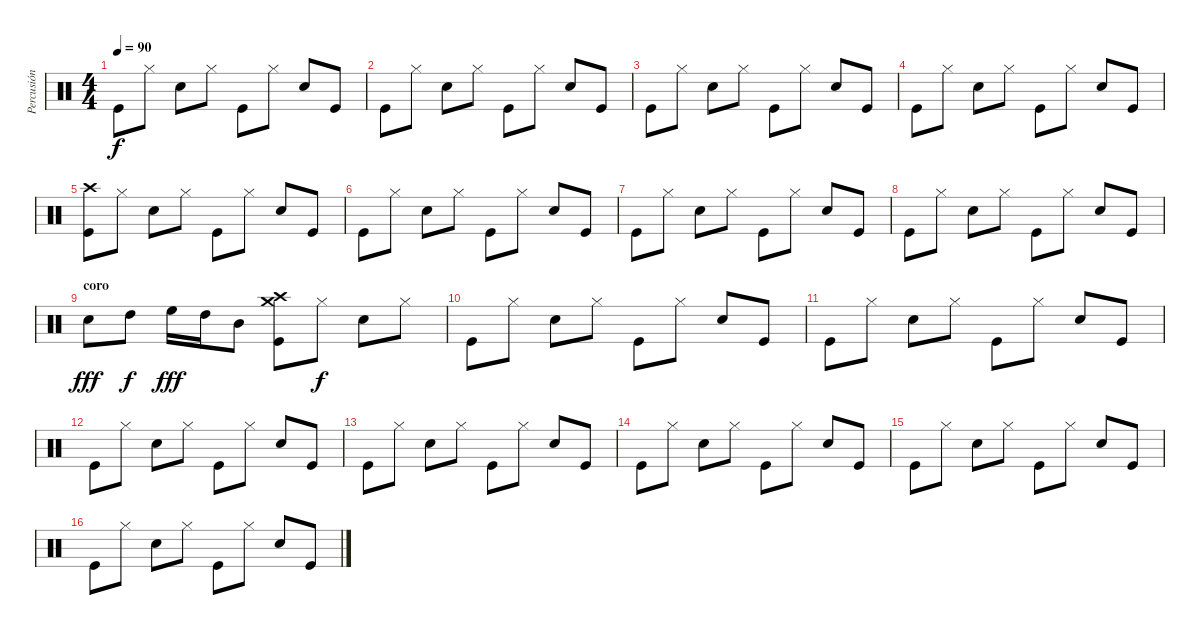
\track ("Percusión" "Percusión") {instrument percussion}
\staff {score}
\articulation defaults
\ts (4 4)
\tempo 90
\clef neutral
\ks c "Kick (hit)".8{dy f} "Hi-Hat (closed)".8 "Snare (hit) 2".8 "Hi-Hat (closed)".8 "Kick (hit)".8 "Hi-Hat (closed)".8 "Snare (hit) 2".8 "Kick (hit)".8
|
"Kick (hit)".8 "Hi-Hat (closed)".8 "Snare (hit) 2".8 "Hi-Hat (closed)".8 "Kick (hit)".8 "Hi-Hat (closed)".8 "Snare (hit) 2".8 "Kick (hit)".8 |
"Kick (hit)".8 "Hi-Hat (closed)".8 "Snare (hit) 2".8 "Hi-Hat (closed)".8 "Kick (hit)".8 "Hi-Hat (closed)".8 "Snare (hit) 2".8 "Kick (hit)".8 |
"Kick (hit)".8 "Hi-Hat (closed)".8 "Snare (hit) 2".8 "Hi-Hat (closed)".8 "Kick (hit)".8 "Hi-Hat (closed)".8 "Snare (hit) 2".8 "Kick (hit)".8 |
("Crash high (hit)" "Kick (hit)").8 "Hi-Hat (closed)".8 "Snare (hit) 2".8 "Hi-Hat (closed)".8 "Kick (hit)".8 "Hi-Hat (closed)".8 "Snare (hit) 2".8 "Kick (hit)".8 |
"Kick (hit)".8 "Hi-Hat (closed)".8 "Snare (hit) 2".8 "Hi-Hat (closed)".8 "Kick (hit)".8 "Hi-Hat (closed)".8 "Snare (hit) 2".8 "Kick (hit)".8 |
"Kick (hit)".8 "Hi-Hat (closed)".8 "Snare (hit) 2".8 "Hi-Hat (closed)".8 "Kick (hit)".8 "Hi-Hat (closed)".8 "Snare (hit) 2".8 "Kick (hit)".8 |
"Kick (hit)".8 "Hi-Hat (closed)".8 "Snare (hit) 2".8 "Hi-Hat (closed)".8 "Kick (hit)".8 "Hi-Hat (closed)".8 "Snare (hit) 2".8 "Kick (hit)".8 |
\section ("" "coro")
"Snare (hit) 2".8{dy fff} "High Tom (hit)".8{dy f} "High Floor Tom (hit)".16{dy fff} "High Tom (hit)".16 "Mid Tom (hit)".8 ("Crash medium (hit)" "Crash high (hit)" "Kick (hit)").8 "Hi-Hat (closed)".8{dy f} "Snare (hit) 2".8 "Hi-Hat (closed)".8 |
"Kick (hit)".8 "Hi-Hat (closed)".8 "Snare (hit) 2".8 "Hi-Hat (closed)".8 "Kick (hit)".8 "Hi-Hat (closed)".8 "Snare (hit) 2".8 "Kick (hit)".8 |
"Kick (hit)".8 "Hi-Hat (closed)".8 "Snare (hit) 2".8 "Hi-Hat (closed)".8 "Kick (hit)".8 "Hi-Hat (closed)".8 "Snare (hit) 2".8 "Kick (hit)".8 |
"Kick (hit)".8 "Hi-Hat (closed)".8 "Snare (hit) 2".8 "Hi-Hat (closed)".8 "Kick (hit)".8 "Hi-Hat (closed)".8 "Snare (hit) 2".8 "Kick (hit)".8 |
"Kick (hit)".8 "Hi-Hat (closed)".8 "Snare (hit) 2".8 "Hi-Hat (closed)".8 "Kick (hit)".8 "Hi-Hat (closed)".8 "Snare (hit) 2".8 "Kick (hit)".8 |
"Kick (hit)".8 "Hi-Hat (closed)".8 "Snare (hit) 2".8 "Hi-Hat (closed)".8 "Kick (hit)".8 "Hi-Hat (closed)".8 "Snare (hit) 2".8 "Kick (hit)".8 |
"Kick (hit)".8 "Hi-Hat (closed)".8 "Snare (hit) 2".8 "Hi-Hat (closed)".8 "Kick (hit)".8 "Hi-Hat (closed)".8 "Snare (hit) 2".8 "Kick (hit)".8 |
"Kick (hit)".8 "Hi-Hat (closed)".8 "Snare (hit) 2".8 "Hi-Hat (closed)".8 "Kick (hit)".8 "Hi-Hat (closed)".8 "Snare (hit) 2".8 "Kick (hit)".8
